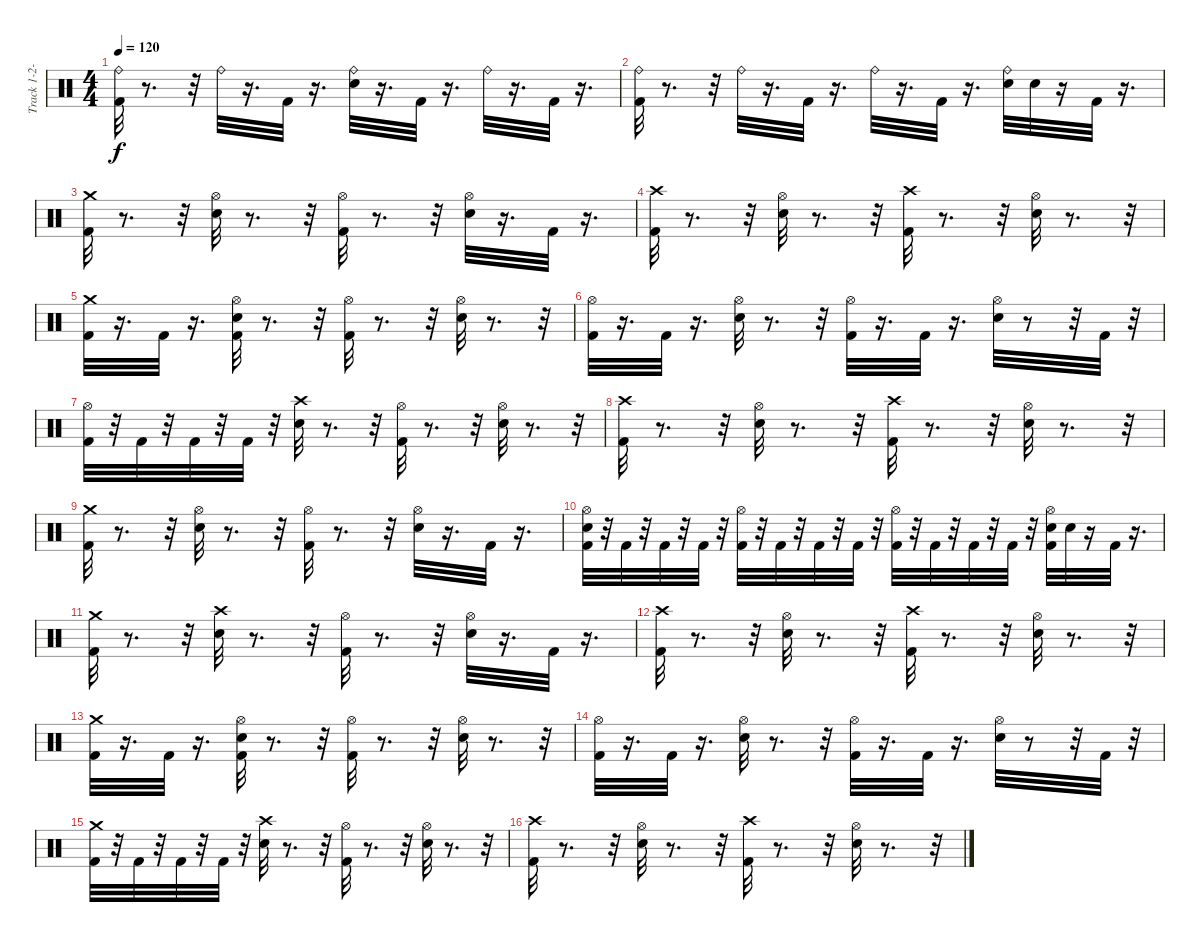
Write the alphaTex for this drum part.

\track ("Track 1-2-3-4" "Track 1-2-") {instrument percussion}
\staff {score}
\articulation defaults
\ts (4 4)
\tempo 120
\clef neutral
\ks c
("Ride (bell)" "Kick (hit) 2").32{dy f} r.8{d} r.32 "Ride (bell)".32 r.16{d} "Kick (hit) 2".32 r.16{d} ("Ride (bell)" "Electric Snare (hit)").32 r.16{d} "Kick (hit) 2".32 r.16{d} "Ride (bell)".32 r.16{d} "Kick (hit) 2".32 r.16{d} |
("Ride (bell)" "Kick (hit) 2").32 r.8{d} r.32 "Ride (bell)".32 r.16{d} "Kick (hit) 2".32 r.16{d} "Ride (bell)".32 r.16{d} "Kick (hit) 2".32 r.16{d} ("Ride (bell)" "Electric Snare (hit)").32 "Electric Snare (hit)".32 r.16 "Kick (hit) 2".32 r.16{d} |
("Crash medium (hit)" "Kick (hit) 2").32 r.8{d} r.32 ("Hi-Hat (open)" "Electric Snare (hit)").32 r.8{d} r.32 ("Hi-Hat (open)" "Kick (hit) 2").32 r.8{d} r.32 ("Hi-Hat (open)" "Electric Snare (hit)").32 r.16{d} "Kick (hit) 2".32 r.16{d} |
("Crash high (hit)" "Kick (hit) 2").32 r.8{d} r.32 ("Hi-Hat (open)" "Electric Snare (hit)").32 r.8{d} r.32 ("Crash high (hit)" "Kick (hit) 2").32 r.8{d} r.32 ("Hi-Hat (open)" "Electric Snare (hit)").32 r.8{d} r.32 |
("Crash medium (hit)" "Kick (hit) 2").32 r.16{d} "Kick (hit) 2".32 r.16{d} ("Hi-Hat (open)" "Kick (hit) 2" "Electric Snare (hit)").32 r.8{d} r.32 ("Hi-Hat (open)" "Kick (hit) 2").32 r.8{d} r.32 ("Hi-Hat (open)" "Electric Snare (hit)").32 r.8{d} r.32 |
("Hi-Hat (open)" "Kick (hit) 2").32 r.16{d} "Kick (hit) 2".32 r.16{d} ("Hi-Hat (open)" "Electric Snare (hit)").32 r.8{d} r.32 ("Hi-Hat (open)" "Kick (hit) 2").32 r.16{d} "Kick (hit) 2".32 r.16{d} ("Hi-Hat (open)" "Electric Snare (hit)").32 r.8 r.32 "Kick (hit) 2".32 r.32 |
("Hi-Hat (open)" "Kick (hit) 2").32 r.32 "Kick (hit) 2".32 r.32 "Kick (hit) 2".32 r.32 "Kick (hit) 2".32 r.32 ("Crash high (hit)" "Electric Snare (hit)").32 r.8{d} r.32 ("Hi-Hat (open)" "Kick (hit) 2").32 r.8{d} r.32 ("Hi-Hat (open)" "Electric Snare (hit)").32 r.8{d} r.32 |
("Crash high (hit)" "Kick (hit) 2").32 r.8{d} r.32 ("Hi-Hat (open)" "Electric Snare (hit)").32 r.8{d} r.32 ("Crash high (hit)" "Kick (hit) 2").32 r.8{d} r.32 ("Hi-Hat (open)" "Electric Snare (hit)").32 r.8{d} r.32 |
("Crash medium (hit)" "Kick (hit) 2").32 r.8{d} r.32 ("Hi-Hat (open)" "Electric Snare (hit)").32 r.8{d} r.32 ("Hi-Hat (open)" "Kick (hit) 2").32 r.8{d} r.32 ("Hi-Hat (open)" "Electric Snare (hit)").32 r.16{d} "Kick (hit) 2".32 r.16{d} |
("Hi-Hat (open)" "Kick (hit) 2" "Electric Snare (hit)").32 r.32 "Kick (hit) 2".32 r.32 "Kick (hit) 2".32 r.32 "Kick (hit) 2".32 r.32 ("Hi-Hat (open)" "Kick (hit) 2").32 r.32 "Kick (hit) 2".32 r.32 "Kick (hit) 2".32 r.32 "Kick (hit) 2".32 r.32 ("Hi-Hat (open)" "Kick (hit) 2").32 r.32 "Kick (hit) 2".32 r.32 "Kick (hit) 2".32 r.32 "Kick (hit) 2".32 r.32 ("Hi-Hat (open)" "Kick (hit) 2" "Electric Snare (hit)").32 "Electric Snare (hit)".32 r.16 "Kick (hit) 2".32 r.16{d} |
("Crash medium (hit)" "Kick (hit) 2").32 r.8{d} r.32 ("Crash high (hit)" "Electric Snare (hit)").32 r.8{d} r.32 ("Hi-Hat (open)" "Kick (hit) 2").32 r.8{d} r.32 ("Hi-Hat (open)" "Electric Snare (hit)").32 r.16{d} "Kick (hit) 2".32 r.16{d} |
("Crash high (hit)" "Kick (hit) 2").32 r.8{d} r.32 ("Hi-Hat (open)" "Electric Snare (hit)").32 r.8{d} r.32 ("Crash high (hit)" "Kick (hit) 2").32 r.8{d} r.32 ("Hi-Hat (open)" "Electric Snare (hit)").32 r.8{d} r.32 |
("Crash medium (hit)" "Kick (hit) 2").32 r.16{d} "Kick (hit) 2".32 r.16{d} ("Hi-Hat (open)" "Kick (hit) 2" "Electric Snare (hit)").32 r.8{d} r.32 ("Hi-Hat (open)" "Kick (hit) 2").32 r.8{d} r.32 ("Hi-Hat (open)" "Electric Snare (hit)").32 r.8{d} r.32 |
("Hi-Hat (open)" "Kick (hit) 2").32 r.16{d} "Kick (hit) 2".32 r.16{d} ("Hi-Hat (open)" "Electric Snare (hit)").32 r.8{d} r.32 ("Hi-Hat (open)" "Kick (hit) 2").32 r.16{d} "Kick (hit) 2".32 r.16{d} ("Hi-Hat (open)" "Electric Snare (hit)").32 r.8 r.32 "Kick (hit) 2".32 r.32 |
("Crash medium (hit)" "Kick (hit) 2").32 r.32 "Kick (hit) 2".32 r.32 "Kick (hit) 2".32 r.32 "Kick (hit) 2".32 r.32 ("Crash high (hit)" "Electric Snare (hit)").32 r.8{d} r.32 ("Hi-Hat (open)" "Kick (hit) 2").32 r.8{d} r.32 ("Hi-Hat (open)" "Electric Snare (hit)").32 r.8{d} r.32 |
("Crash high (hit)" "Kick (hit) 2").32 r.8{d} r.32 ("Hi-Hat (open)" "Electric Snare (hit)").32 r.8{d} r.32 ("Crash high (hit)" "Kick (hit) 2").32 r.8{d} r.32 ("Hi-Hat (open)" "Electric Snare (hit)").32 r.8{d} r.32
